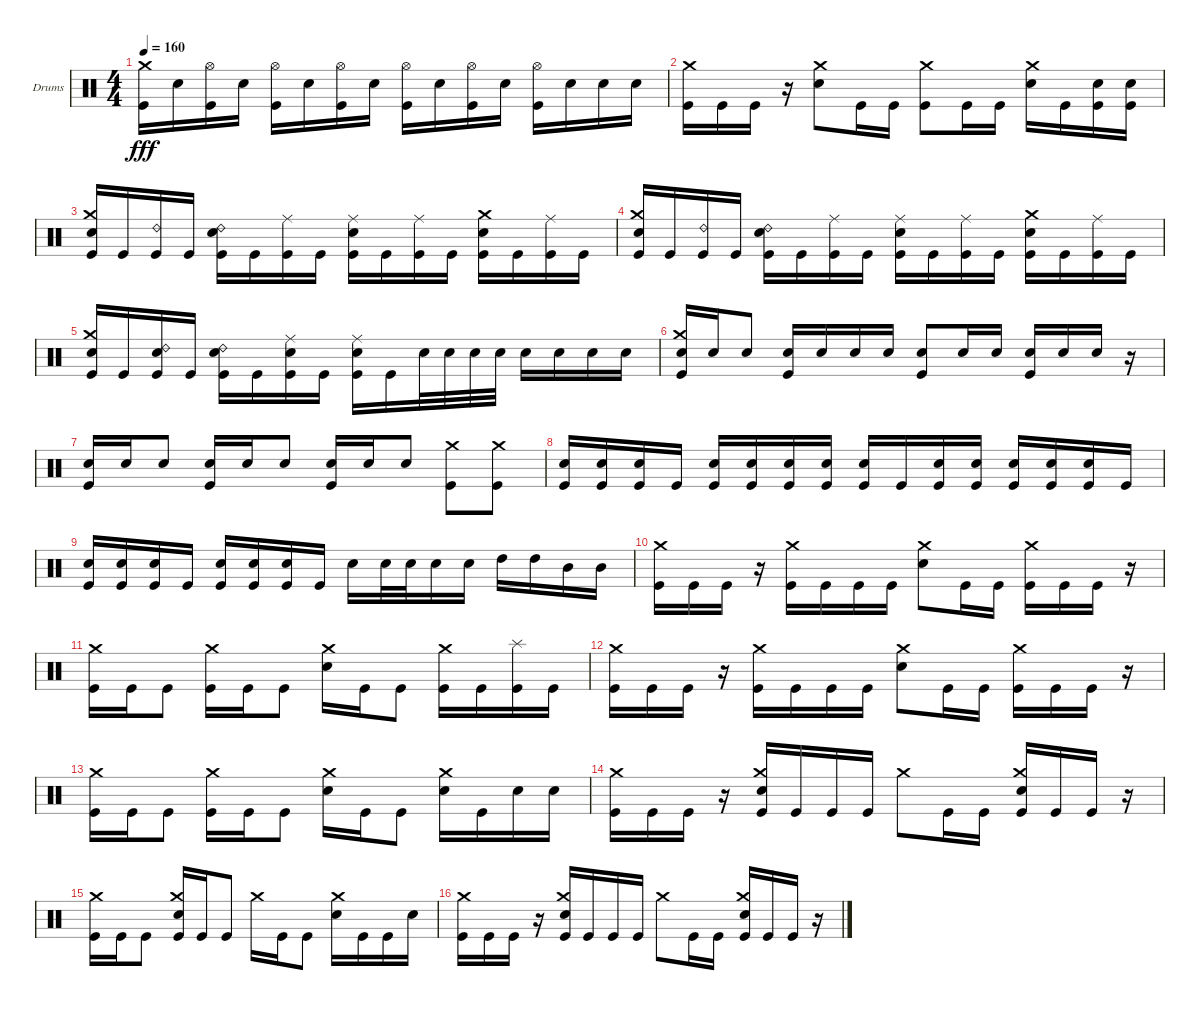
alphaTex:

\defaultSystemsLayout 4
\bracketExtendMode groupsimilarinstruments
\firstSystemTrackNameOrientation horizontal
\otherSystemsTrackNameOrientation horizontal
\track ("Nikita Korzhov" "Drums") {instrument percussion}
\staff {score}
\articulation defaults
\ts (4 4)
\tempo 160
\clef neutral
\scale
0.333333
\ks c
("Kick (hit)" "Crash medium (hit)").16{dy fff} "Snare (hit) 2".16 ("Kick (hit)" "Hi-Hat (open)").16 "Snare (hit) 2".16 ("Kick (hit)" "Hi-Hat (open)").16 "Snare (hit) 2".16 ("Kick (hit)" "Hi-Hat (open)").16 "Snare (hit) 2".16 ("Kick (hit)" "Hi-Hat (open)").16 "Snare (hit) 2".16 ("Kick (hit)" "Hi-Hat (open)").16 "Snare (hit) 2".16 ("Kick (hit)" "Hi-Hat (open)").16 "Snare (hit) 2".16 "Snare (hit) 2".16 "Snare (hit) 2".16 |
\scale
0.333333 ("Kick (hit)" "Crash medium (hit)").16 "Kick (hit)".16 "Kick (hit)".16 r.16 ("Snare (hit) 2" "Crash medium (hit)").8 "Kick (hit)".16 "Kick (hit)".16 ("Crash medium (hit)" "Kick (hit)").8 "Kick (hit)".16 "Kick (hit)".16 ("Snare (hit) 2" "Crash medium (hit)").16 "Kick (hit)".16 ("Kick (hit)" "Snare (hit) 2").16 ("Kick (hit)" "Snare (hit) 2").16 |
\scale
0.333333 ("Kick (hit)" "Crash medium (hit)" "Snare (hit) 2").16 "Kick (hit)".16 ("Kick (hit)" "Ride (bell) 2").16 "Kick (hit)".16 ("Kick (hit)" "Ride (bell) 2" "Snare (hit) 2").16 "Kick (hit)".16 ("Kick (hit)" "Ride (middle)").16 "Kick (hit)".16 ("Kick (hit)" "Ride (middle)" "Snare (hit) 2").16 "Kick (hit)".16 ("Kick (hit)" "Ride (middle)").16 "Kick (hit)".16 ("Kick (hit)" "Crash medium (hit)" "Snare (hit) 2").16 "Kick (hit)".16 ("Kick (hit)" "Ride (middle)").16 "Kick (hit)".16 |
\scale
0.333333 ("Kick (hit)" "Crash medium (hit)" "Snare (hit) 2").16 "Kick (hit)".16 ("Kick (hit)" "Ride (bell) 2").16 "Kick (hit)".16 ("Kick (hit)" "Ride (bell) 2" "Snare (hit) 2").16 "Kick (hit)".16 ("Kick (hit)" "Ride (middle)").16 "Kick (hit)".16 ("Kick (hit)" "Ride (middle)" "Snare (hit) 2").16 "Kick (hit)".16 ("Kick (hit)" "Ride (middle)").16 "Kick (hit)".16 ("Kick (hit)" "Crash medium (hit)" "Snare (hit) 2").16 "Kick (hit)".16 ("Kick (hit)" "Ride (middle)").16 "Kick (hit)".16 |
\scale
0.333333 ("Kick (hit)" "Crash medium (hit)" "Snare (hit) 2").16 "Kick (hit)".16 ("Kick (hit)" "Ride (bell) 2" "Snare (hit) 2").16 "Kick (hit)".16 ("Kick (hit)" "Ride (bell) 2" "Snare (hit) 2").16 "Kick (hit)".16 ("Kick (hit)" "Ride (middle)" "Snare (hit) 2").16 "Kick (hit)".16 ("Kick (hit)" "Ride (middle)" "Snare (hit) 2").16 "Kick (hit)".16 "Snare (hit) 2".32 "Snare (hit) 2".32 "Snare (hit) 2".32 "Snare (hit) 2".32 "Snare (hit) 2".16 "Snare (hit) 2".16 "Snare (hit) 2".16 "Snare (hit) 2".16 |
\scale
0.333333 ("Snare (hit) 2" "Kick (hit)" "Crash medium (hit)").16 "Snare (hit) 2".16 "Snare (hit) 2".8 ("Snare (hit) 2" "Kick (hit)").16 "Snare (hit) 2".16 "Snare (hit) 2".16 "Snare (hit) 2".16 ("Snare (hit) 2" "Kick (hit)").8 "Snare (hit) 2".16 "Snare (hit) 2".16 ("Snare (hit) 2" "Kick (hit)").16 "Snare (hit) 2".16 "Snare (hit) 2".16 r.16 |
\scale
0.333333 ("Snare (hit) 2" "Kick (hit)").16 "Snare (hit) 2".16 "Snare (hit) 2".8 ("Snare (hit) 2" "Kick (hit)").16 "Snare (hit) 2".16 "Snare (hit) 2".8 ("Snare (hit) 2" "Kick (hit)").16 "Snare (hit) 2".16 "Snare (hit) 2".8 ("Kick (hit)" "Crash medium (hit)").8 ("Kick (hit)" "Crash medium (hit)").8 |
\scale
0.333333 ("Kick (hit)" "Snare (hit) 2").16 ("Kick (hit)" "Snare (hit) 2").16 ("Kick (hit)" "Snare (hit) 2").16 "Kick (hit)".16 ("Kick (hit)" "Snare (hit) 2").16 ("Kick (hit)" "Snare (hit) 2").16 ("Kick (hit)" "Snare (hit) 2").16 ("Kick (hit)" "Snare (hit) 2").16 ("Kick (hit)" "Snare (hit) 2").16 "Kick (hit)".16 ("Kick (hit)" "Snare (hit) 2").16 ("Kick (hit)" "Snare (hit) 2").16 ("Kick (hit)" "Snare (hit) 2").16 ("Kick (hit)" "Snare (hit) 2").16 ("Kick (hit)" "Snare (hit) 2").16 "Kick (hit)".16 |
\scale
0.333333 ("Kick (hit)" "Snare (hit) 2").16 ("Kick (hit)" "Snare (hit) 2").16 ("Kick (hit)" "Snare (hit) 2").16 "Kick (hit)".16 ("Kick (hit)" "Snare (hit) 2").16 ("Kick (hit)" "Snare (hit) 2").16 ("Kick (hit)" "Snare (hit) 2").16 "Kick (hit)".16 "Snare (hit) 2".16 "Snare (hit) 2".32 "Snare (hit) 2".32 "Snare (hit) 2".16 "Snare (hit) 2".16 "High Tom (hit)".16 "High Tom (hit)".16 "Mid Tom (hit)".16 "Mid Tom (hit)".16 |
\scale
0.333333 ("Kick (hit)" "Crash medium (hit)").16 "Kick (hit)".16 "Kick (hit)".16 r.16 ("Kick (hit)" "Crash medium (hit)").16 "Kick (hit)".16 "Kick (hit)".16 "Kick (hit)".16 ("Snare (hit) 2" "Crash medium (hit)").8 "Kick (hit)".16 "Kick (hit)".16 ("Kick (hit)" "Crash medium (hit)").16 "Kick (hit)".16 "Kick (hit)".16 r.16 |
\scale
0.333333 ("Kick (hit)" "Crash medium (hit)").16 "Kick (hit)".16 "Kick (hit)".8 ("Kick (hit)" "Crash medium (hit)").16 "Kick (hit)".16 "Kick (hit)".8 ("Snare (hit) 2" "Crash medium (hit)").16 "Kick (hit)".16 "Kick (hit)".8 ("Crash medium (hit)" "Kick (hit)").16 "Kick (hit)".16 ("Kick (hit)" "Splash (hit)").16 "Kick (hit)".16 |
\scale
0.333333 ("Kick (hit)" "Crash medium (hit)").16 "Kick (hit)".16 "Kick (hit)".16 r.16 ("Kick (hit)" "Crash medium (hit)").16 "Kick (hit)".16 "Kick (hit)".16 "Kick (hit)".16 ("Snare (hit) 2" "Crash medium (hit)").8 "Kick (hit)".16 "Kick (hit)".16 ("Kick (hit)" "Crash medium (hit)").16 "Kick (hit)".16 "Kick (hit)".16 r.16 |
\scale
0.333333 ("Kick (hit)" "Crash medium (hit)").16 "Kick (hit)".16 "Kick (hit)".8 ("Kick (hit)" "Crash medium (hit)").16 "Kick (hit)".16 "Kick (hit)".8 ("Snare (hit) 2" "Crash medium (hit)").16 "Kick (hit)".16 "Kick (hit)".8 ("Snare (hit) 2" "Crash medium (hit)").16 "Kick (hit)".16 "Snare (hit) 2".16 "Snare (hit) 2".16 |
\scale
0.333333 ("Kick (hit)" "Crash medium (hit)").16 "Kick (hit)".16 "Kick (hit)".16 r.16 ("Kick (hit)" "Crash medium (hit)" "Snare (hit) 2").16 "Kick (hit)".16 "Kick (hit)".16 "Kick (hit)".16 "Crash medium (hit)".8 "Kick (hit)".16 "Kick (hit)".16 ("Kick (hit)" "Crash medium (hit)" "Snare (hit) 2").16 "Kick (hit)".16 "Kick (hit)".16 r.16 |
\scale
0.333333 ("Kick (hit)" "Crash medium (hit)").16 "Kick (hit)".16 "Kick (hit)".8 ("Kick (hit)" "Crash medium (hit)" "Snare (hit) 2").16 "Kick (hit)".16 "Kick (hit)".8 "Crash medium (hit)".16 "Kick (hit)".16 "Kick (hit)".8 ("Crash medium (hit)" "Snare (hit) 2").16 "Kick (hit)".16 "Kick (hit)".16 "Snare (hit) 2".16 |
\scale
0.333333 ("Kick (hit)" "Crash medium (hit)").16 "Kick (hit)".16 "Kick (hit)".16 r.16 ("Kick (hit)" "Crash medium (hit)" "Snare (hit) 2").16 "Kick (hit)".16 "Kick (hit)".16 "Kick (hit)".16 "Crash medium (hit)".8 "Kick (hit)".16 "Kick (hit)".16 ("Kick (hit)" "Crash medium (hit)" "Snare (hit) 2").16 "Kick (hit)".16 "Kick (hit)".16 r.16
